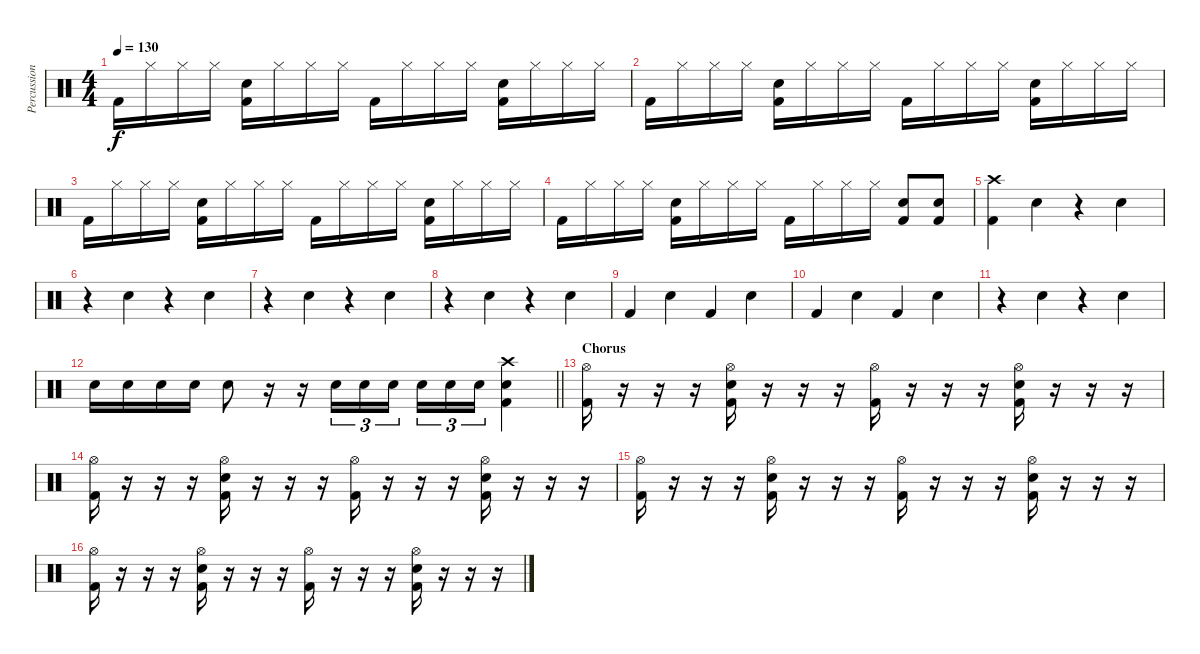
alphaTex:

\track ("Percussion" "Percussion") {instrument percussion}
\staff {score}
\articulation defaults
\ts (4 4)
\tempo 130
\clef neutral
\ks c "Kick (hit) 2".16{dy f} "Hi-Hat (closed)".16 "Hi-Hat (closed)".16 "Hi-Hat (closed)".16
("Electric Snare (hit)" "Kick (hit) 2").16 "Hi-Hat (closed)".16 "Hi-Hat (closed)".16 "Hi-Hat (closed)".16 "Kick (hit) 2".16 "Hi-Hat (closed)".16 "Hi-Hat (closed)".16 "Hi-Hat (closed)".16 ("Electric Snare (hit)" "Kick (hit) 2").16 "Hi-Hat (closed)".16 "Hi-Hat (closed)".16 "Hi-Hat (closed)".16 |
"Kick (hit) 2".16 "Hi-Hat (closed)".16 "Hi-Hat (closed)".16 "Hi-Hat (closed)".16 ("Electric Snare (hit)" "Kick (hit) 2").16 "Hi-Hat (closed)".16 "Hi-Hat (closed)".16 "Hi-Hat (closed)".16 "Kick (hit) 2".16 "Hi-Hat (closed)".16 "Hi-Hat (closed)".16 "Hi-Hat (closed)".16 ("Electric Snare (hit)" "Kick (hit) 2").16 "Hi-Hat (closed)".16 "Hi-Hat (closed)".16 "Hi-Hat (closed)".16 |
"Kick (hit) 2".16 "Hi-Hat (closed)".16 "Hi-Hat (closed)".16 "Hi-Hat (closed)".16 ("Electric Snare (hit)" "Kick (hit) 2").16 "Hi-Hat (closed)".16 "Hi-Hat (closed)".16 "Hi-Hat (closed)".16 "Kick (hit) 2".16 "Hi-Hat (closed)".16 "Hi-Hat (closed)".16 "Hi-Hat (closed)".16 ("Electric Snare (hit)" "Kick (hit) 2").16 "Hi-Hat (closed)".16 "Hi-Hat (closed)".16 "Hi-Hat (closed)".16 |
"Kick (hit) 2".16 "Hi-Hat (closed)".16 "Hi-Hat (closed)".16 "Hi-Hat (closed)".16 ("Electric Snare (hit)" "Kick (hit) 2").16 "Hi-Hat (closed)".16 "Hi-Hat (closed)".16 "Hi-Hat (closed)".16 "Kick (hit) 2".16 "Hi-Hat (closed)".16 "Hi-Hat (closed)".16 "Hi-Hat (closed)".16 ("Electric Snare (hit)" "Kick (hit) 2").8 ("Electric Snare (hit)" "Kick (hit) 2").8 |
("Crash high (hit)" "Kick (hit) 2").4 "Electric Snare (hit)".4 r.4 "Electric Snare (hit)".4 |
r.4 "Electric Snare (hit)".4 r.4 "Electric Snare (hit)".4 |
r.4 "Electric Snare (hit)".4 r.4 "Electric Snare (hit)".4 |
r.4 "Electric Snare (hit)".4 r.4 "Electric Snare (hit)".4 |
"Kick (hit) 2".4 "Electric Snare (hit)".4 "Kick (hit) 2".4 "Electric Snare (hit)".4 |
"Kick (hit) 2".4 "Electric Snare (hit)".4 "Kick (hit) 2".4 "Electric Snare (hit)".4 |
r.4 "Electric Snare (hit)".4 r.4 "Electric Snare (hit)".4 |
\barLineRight lightlight "Electric Snare (hit)".16 "Electric Snare (hit)".16 "Electric Snare (hit)".16 "Electric Snare (hit)".16 "Electric Snare (hit)".8
r.16 r.16 "Electric Snare (hit)".16{tu (3 2)} "Electric Snare (hit)".16{tu (3 2)} "Electric Snare (hit)".16{tu (3 2) beam splitsecondary} "Electric Snare (hit)".16{tu (3 2)} "Electric Snare (hit)".16{tu (3 2)} "Electric Snare (hit)".16{tu (3 2)} ("Crash high (hit)" "Electric Snare (hit)" "Kick (hit) 2").4 |
\section ("" "Chorus")
("Hi-Hat (open)" "Kick (hit) 2").16 r.16 r.16 r.16 ("Hi-Hat (open)" "Electric Snare (hit)" "Kick (hit) 2").16 r.16 r.16 r.16 ("Hi-Hat (open)" "Kick (hit) 2").16 r.16 r.16 r.16 ("Hi-Hat (open)" "Electric Snare (hit)" "Kick (hit) 2").16 r.16 r.16 r.16 |
("Hi-Hat (open)" "Kick (hit) 2").16 r.16 r.16 r.16 ("Hi-Hat (open)" "Electric Snare (hit)" "Kick (hit) 2").16 r.16 r.16 r.16 ("Hi-Hat (open)" "Kick (hit) 2").16 r.16 r.16 r.16 ("Hi-Hat (open)" "Electric Snare (hit)" "Kick (hit) 2").16 r.16 r.16 r.16 |
("Hi-Hat (open)" "Kick (hit) 2").16 r.16 r.16 r.16 ("Hi-Hat (open)" "Electric Snare (hit)" "Kick (hit) 2").16 r.16 r.16 r.16 ("Hi-Hat (open)" "Kick (hit) 2").16 r.16 r.16 r.16 ("Hi-Hat (open)" "Electric Snare (hit)" "Kick (hit) 2").16 r.16 r.16 r.16 |
("Hi-Hat (open)" "Kick (hit) 2").16 r.16 r.16 r.16 ("Hi-Hat (open)" "Electric Snare (hit)" "Kick (hit) 2").16 r.16 r.16 r.16 ("Hi-Hat (open)" "Kick (hit) 2").16 r.16 r.16 r.16 ("Hi-Hat (open)" "Electric Snare (hit)" "Kick (hit) 2").16 r.16 r.16 r.16
